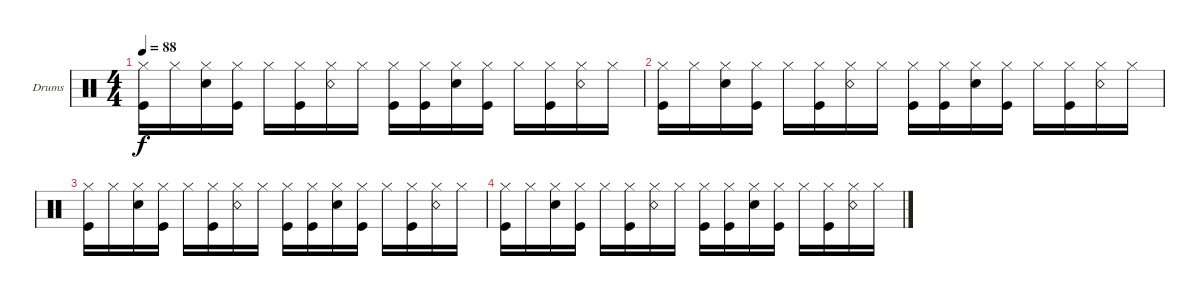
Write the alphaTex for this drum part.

\bracketExtendMode groupsimilarinstruments
\firstSystemTrackNameOrientation horizontal
\otherSystemsTrackNameOrientation horizontal
\track ("Drums" "Drums") {instrument percussion}
\staff {score}
\articulation defaults
\ts (4 4)
\tempo 88
\clef neutral
\ks c
("Hi-Hat (closed)" "Kick (hit)").16{dy f} "Hi-Hat (closed)".16 ("Hi-Hat (closed)" "Snare (hit) 2").16 ("Hi-Hat (closed)" "Kick (hit)").16 "Hi-Hat (closed)".16 ("Hi-Hat (closed)" "Kick (hit)").16 ("Hi-Hat (closed)" "Snare (rim shot)").16 "Hi-Hat (closed)".16 ("Hi-Hat (closed)" "Kick (hit)").16 ("Hi-Hat (closed)" "Kick (hit)").16 ("Hi-Hat (closed)" "Snare (hit) 2").16 ("Hi-Hat (closed)" "Kick (hit)").16 "Hi-Hat (closed)".16 ("Hi-Hat (closed)" "Kick (hit)").16 ("Hi-Hat (closed)" "Snare (rim shot)").16 "Hi-Hat (closed)".16 |
("Hi-Hat (closed)" "Kick (hit)").16 "Hi-Hat (closed)".16 ("Hi-Hat (closed)" "Snare (hit) 2").16 ("Hi-Hat (closed)" "Kick (hit)").16 "Hi-Hat (closed)".16 ("Hi-Hat (closed)" "Kick (hit)").16 ("Hi-Hat (closed)" "Snare (rim shot)").16 "Hi-Hat (closed)".16 ("Hi-Hat (closed)" "Kick (hit)").16 ("Hi-Hat (closed)" "Kick (hit)").16 ("Hi-Hat (closed)" "Snare (hit) 2").16 ("Hi-Hat (closed)" "Kick (hit)").16 "Hi-Hat (closed)".16 ("Hi-Hat (closed)" "Kick (hit)").16 ("Hi-Hat (closed)" "Snare (rim shot)").16 "Hi-Hat (closed)".16 |
("Hi-Hat (closed)" "Kick (hit)").16 "Hi-Hat (closed)".16 ("Hi-Hat (closed)" "Snare (hit) 2").16 ("Hi-Hat (closed)" "Kick (hit)").16 "Hi-Hat (closed)".16 ("Hi-Hat (closed)" "Kick (hit)").16 ("Hi-Hat (closed)" "Snare (rim shot)").16 "Hi-Hat (closed)".16 ("Hi-Hat (closed)" "Kick (hit)").16 ("Hi-Hat (closed)" "Kick (hit)").16 ("Hi-Hat (closed)" "Snare (hit) 2").16 ("Hi-Hat (closed)" "Kick (hit)").16 "Hi-Hat (closed)".16 ("Hi-Hat (closed)" "Kick (hit)").16 ("Hi-Hat (closed)" "Snare (rim shot)").16 "Hi-Hat (closed)".16 |
("Hi-Hat (closed)" "Kick (hit)").16 "Hi-Hat (closed)".16 ("Hi-Hat (closed)" "Snare (hit) 2").16 ("Hi-Hat (closed)" "Kick (hit)").16 "Hi-Hat (closed)".16 ("Hi-Hat (closed)" "Kick (hit)").16 ("Hi-Hat (closed)" "Snare (rim shot)").16 "Hi-Hat (closed)".16 ("Hi-Hat (closed)" "Kick (hit)").16 ("Hi-Hat (closed)" "Kick (hit)").16 ("Hi-Hat (closed)" "Snare (hit) 2").16 ("Hi-Hat (closed)" "Kick (hit)").16 "Hi-Hat (closed)".16 ("Hi-Hat (closed)" "Kick (hit)").16 ("Hi-Hat (closed)" "Snare (rim shot)").16 "Hi-Hat (closed)".16
